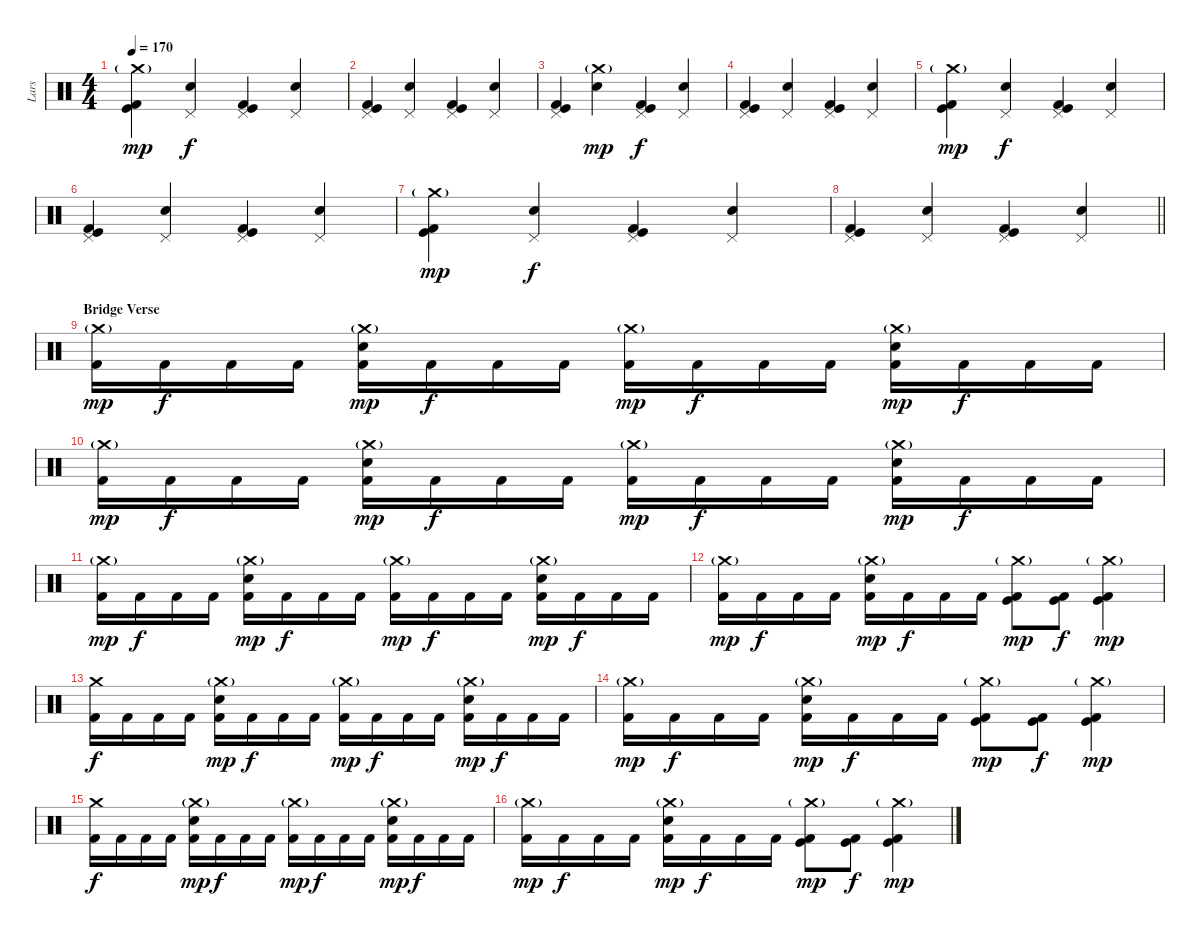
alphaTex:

\track ("Lars" "Lars") {instrument percussion}
\staff {score}
\articulation defaults
\ts (4 4)
\tempo 170
\clef neutral
\ks c
("Crash medium (hit)"{g} "Kick (hit)" "Kick (hit) 2").4{dy mp} ("Pedal Hi-Hat (hit)" "Electric Snare (hit)").4{dy f} ("Pedal Hi-Hat (hit)" "Kick (hit)" "Kick (hit) 2").4 ("Pedal Hi-Hat (hit)" "Electric Snare (hit)").4 |
("Pedal Hi-Hat (hit)" "Kick (hit)" "Kick (hit) 2").4 ("Pedal Hi-Hat (hit)" "Electric Snare (hit)").4 ("Pedal Hi-Hat (hit)" "Kick (hit)" "Kick (hit) 2").4 ("Pedal Hi-Hat (hit)" "Electric Snare (hit)").4 |
("Pedal Hi-Hat (hit)" "Kick (hit)" "Kick (hit) 2").4 ("Crash medium (hit)"{g} "Electric Snare (hit)").4{dy mp} ("Pedal Hi-Hat (hit)" "Kick (hit)" "Kick (hit) 2").4{dy f} ("Pedal Hi-Hat (hit)" "Electric Snare (hit)").4 |
("Pedal Hi-Hat (hit)" "Kick (hit)" "Kick (hit) 2").4 ("Pedal Hi-Hat (hit)" "Electric Snare (hit)").4 ("Pedal Hi-Hat (hit)" "Kick (hit)" "Kick (hit) 2").4 ("Pedal Hi-Hat (hit)" "Electric Snare (hit)").4 |
("Crash medium (hit)"{g} "Kick (hit)" "Kick (hit) 2").4{dy mp} ("Pedal Hi-Hat (hit)" "Electric Snare (hit)").4{dy f} ("Pedal Hi-Hat (hit)" "Kick (hit)" "Kick (hit) 2").4 ("Pedal Hi-Hat (hit)" "Electric Snare (hit)").4 |
("Pedal Hi-Hat (hit)" "Kick (hit)" "Kick (hit) 2").4 ("Pedal Hi-Hat (hit)" "Electric Snare (hit)").4 ("Pedal Hi-Hat (hit)" "Kick (hit)" "Kick (hit) 2").4 ("Pedal Hi-Hat (hit)" "Electric Snare (hit)").4 |
("Crash medium (hit)"{g} "Kick (hit)" "Kick (hit) 2").4{dy mp} ("Pedal Hi-Hat (hit)" "Electric Snare (hit)").4{dy f} ("Pedal Hi-Hat (hit)" "Kick (hit)" "Kick (hit) 2").4 ("Pedal Hi-Hat (hit)" "Electric Snare (hit)").4 |
\barLineRight lightlight
("Pedal Hi-Hat (hit)" "Kick (hit)" "Kick (hit) 2").4 ("Pedal Hi-Hat (hit)" "Electric Snare (hit)").4 ("Pedal Hi-Hat (hit)" "Kick (hit)" "Kick (hit) 2").4 ("Pedal Hi-Hat (hit)" "Electric Snare (hit)").4 |
\section ("" "Bridge Verse")
("Crash medium (hit)"{g} "Kick (hit) 2").16{dy mp} "Kick (hit) 2".16{dy f} "Kick (hit) 2".16 "Kick (hit) 2".16 ("Crash medium (hit)"{g} "Electric Snare (hit)" "Kick (hit) 2").16{dy mp} "Kick (hit) 2".16{dy f} "Kick (hit) 2".16 "Kick (hit) 2".16 ("Crash medium (hit)"{g} "Kick (hit) 2").16{dy mp} "Kick (hit) 2".16{dy f} "Kick (hit) 2".16 "Kick (hit) 2".16 ("Crash medium (hit)"{g} "Electric Snare (hit)" "Kick (hit) 2").16{dy mp} "Kick (hit) 2".16{dy f} "Kick (hit) 2".16 "Kick (hit) 2".16 |
("Crash medium (hit)"{g} "Kick (hit) 2").16{dy mp} "Kick (hit) 2".16{dy f} "Kick (hit) 2".16 "Kick (hit) 2".16 ("Crash medium (hit)"{g} "Electric Snare (hit)" "Kick (hit) 2").16{dy mp} "Kick (hit) 2".16{dy f} "Kick (hit) 2".16 "Kick (hit) 2".16 ("Crash medium (hit)"{g} "Kick (hit) 2").16{dy mp} "Kick (hit) 2".16{dy f} "Kick (hit) 2".16 "Kick (hit) 2".16 ("Crash medium (hit)"{g} "Electric Snare (hit)" "Kick (hit) 2").16{dy mp} "Kick (hit) 2".16{dy f} "Kick (hit) 2".16 "Kick (hit) 2".16 |
("Crash medium (hit)"{g} "Kick (hit) 2").16{dy mp} "Kick (hit) 2".16{dy f} "Kick (hit) 2".16 "Kick (hit) 2".16 ("Crash medium (hit)"{g} "Electric Snare (hit)" "Kick (hit) 2").16{dy mp} "Kick (hit) 2".16{dy f} "Kick (hit) 2".16 "Kick (hit) 2".16 ("Crash medium (hit)"{g} "Kick (hit) 2").16{dy mp} "Kick (hit) 2".16{dy f} "Kick (hit) 2".16 "Kick (hit) 2".16 ("Crash medium (hit)"{g} "Electric Snare (hit)" "Kick (hit) 2").16{dy mp} "Kick (hit) 2".16{dy f} "Kick (hit) 2".16 "Kick (hit) 2".16 |
("Crash medium (hit)"{g} "Kick (hit) 2").16{dy mp} "Kick (hit) 2".16{dy f} "Kick (hit) 2".16 "Kick (hit) 2".16 ("Crash medium (hit)"{g} "Electric Snare (hit)" "Kick (hit) 2").16{dy mp} "Kick (hit) 2".16{dy f} "Kick (hit) 2".16 "Kick (hit) 2".16 ("Crash medium (hit)"{g} "Kick (hit)" "Kick (hit) 2").8{dy mp} ("Kick (hit)" "Kick (hit) 2").8{dy f} ("Crash medium (hit)"{g} "Kick (hit)" "Kick (hit) 2").4{dy mp} |
("Crash medium (hit)" "Kick (hit) 2").16{dy f} "Kick (hit) 2".16 "Kick (hit) 2".16 "Kick (hit) 2".16 ("Crash medium (hit)"{g} "Electric Snare (hit)" "Kick (hit) 2").16{dy mp} "Kick (hit) 2".16{dy f} "Kick (hit) 2".16 "Kick (hit) 2".16 ("Crash medium (hit)"{g} "Kick (hit) 2").16{dy mp} "Kick (hit) 2".16{dy f} "Kick (hit) 2".16 "Kick (hit) 2".16 ("Crash medium (hit)"{g} "Electric Snare (hit)" "Kick (hit) 2").16{dy mp} "Kick (hit) 2".16{dy f} "Kick (hit) 2".16 "Kick (hit) 2".16 |
("Crash medium (hit)"{g} "Kick (hit) 2").16{dy mp} "Kick (hit) 2".16{dy f} "Kick (hit) 2".16 "Kick (hit) 2".16 ("Crash medium (hit)"{g} "Electric Snare (hit)" "Kick (hit) 2").16{dy mp} "Kick (hit) 2".16{dy f} "Kick (hit) 2".16 "Kick (hit) 2".16 ("Crash medium (hit)"{g} "Kick (hit)" "Kick (hit) 2").8{dy mp} ("Kick (hit)" "Kick (hit) 2").8{dy f} ("Crash medium (hit)"{g} "Kick (hit)" "Kick (hit) 2").4{dy mp} |
("Crash medium (hit)" "Kick (hit) 2").16{dy f} "Kick (hit) 2".16 "Kick (hit) 2".16 "Kick (hit) 2".16 ("Crash medium (hit)"{g} "Electric Snare (hit)" "Kick (hit) 2").16{dy mp} "Kick (hit) 2".16{dy f} "Kick (hit) 2".16 "Kick (hit) 2".16 ("Crash medium (hit)"{g} "Kick (hit) 2").16{dy mp} "Kick (hit) 2".16{dy f} "Kick (hit) 2".16 "Kick (hit) 2".16 ("Crash medium (hit)"{g} "Electric Snare (hit)" "Kick (hit) 2").16{dy mp} "Kick (hit) 2".16{dy f} "Kick (hit) 2".16 "Kick (hit) 2".16 |
("Crash medium (hit)"{g} "Kick (hit) 2").16{dy mp} "Kick (hit) 2".16{dy f} "Kick (hit) 2".16 "Kick (hit) 2".16 ("Crash medium (hit)"{g} "Electric Snare (hit)" "Kick (hit) 2").16{dy mp} "Kick (hit) 2".16{dy f} "Kick (hit) 2".16 "Kick (hit) 2".16 ("Crash medium (hit)"{g} "Kick (hit)" "Kick (hit) 2").8{dy mp} ("Kick (hit)" "Kick (hit) 2").8{dy f} ("Crash medium (hit)"{g} "Kick (hit)" "Kick (hit) 2").4{dy mp}
